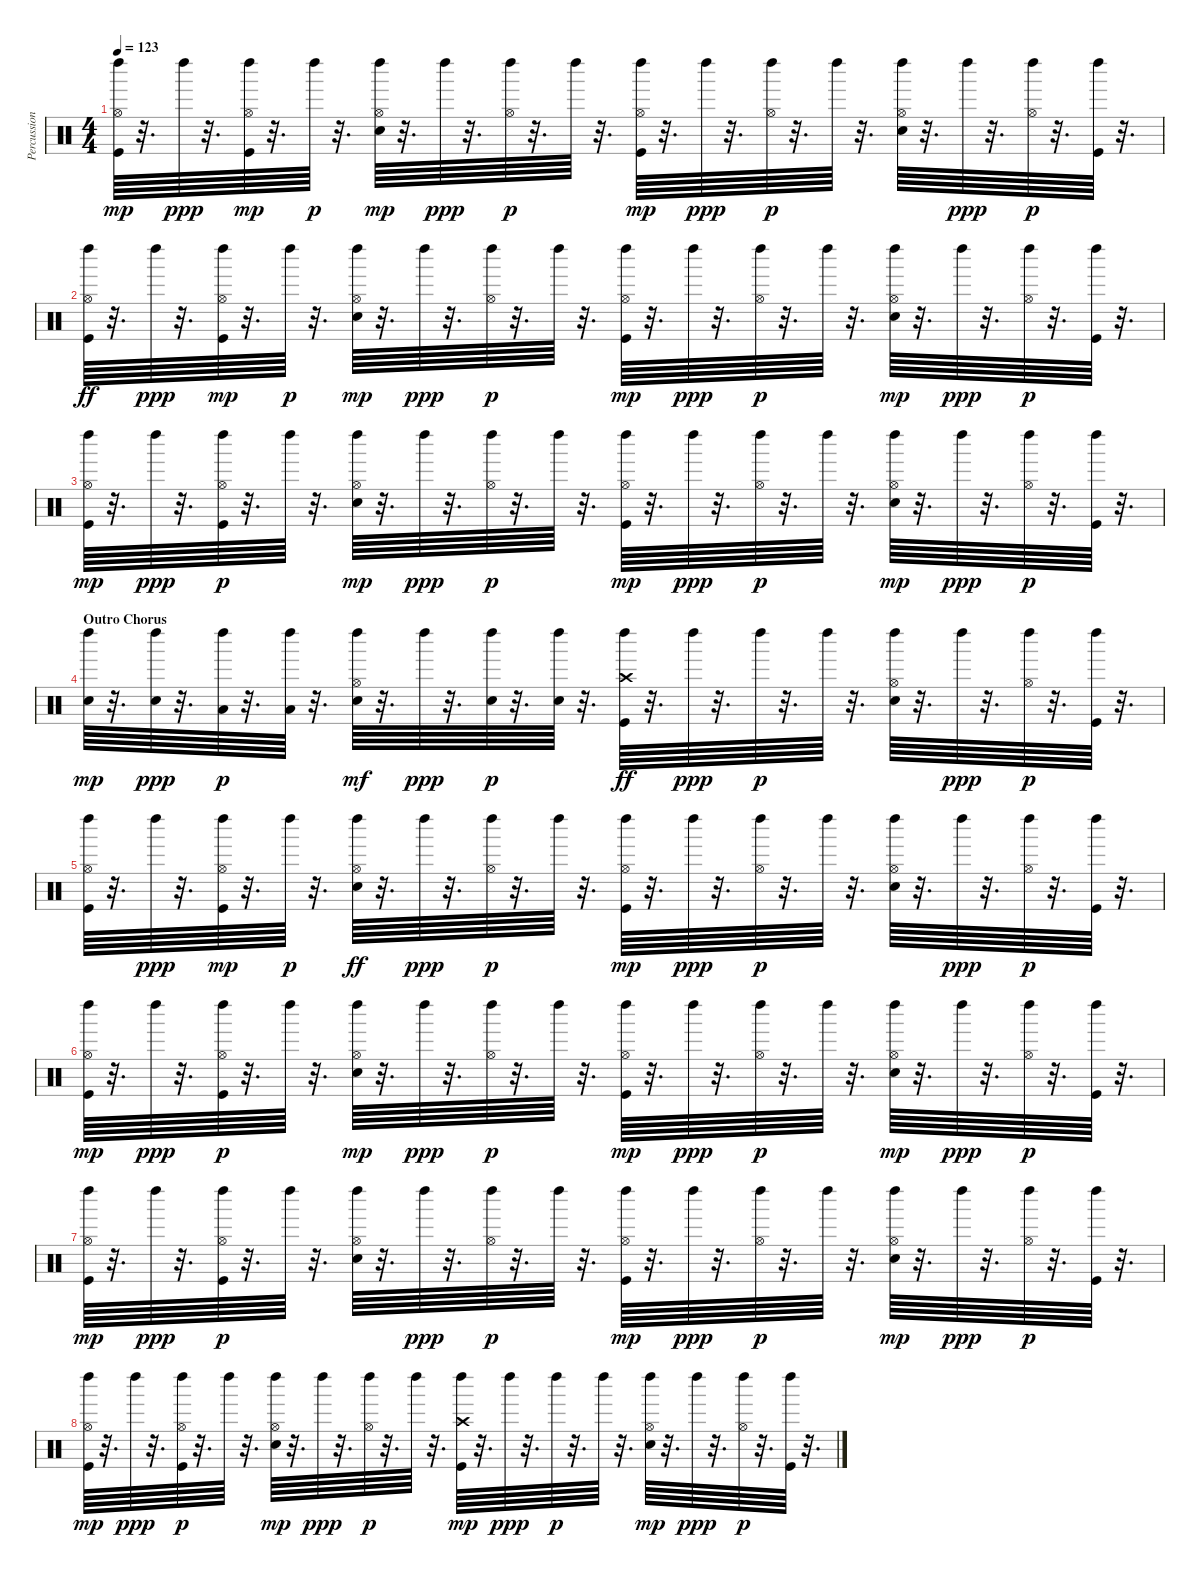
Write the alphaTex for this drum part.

\track ("Percussion" "Percussion") {instrument percussion}
\staff {score}
\articulation defaults
\ts (4 4)
\tempo 123
\clef neutral
\ks c
("Kick (hit)" "Hi-Hat (open)" "Left Maraca (hit)").64{dy mp} r.32{d} "Left Maraca (hit)".64{dy ppp} r.32{d} ("Hi-Hat (open)" "Left Maraca (hit)" "Kick (hit)").64{dy mp} r.32{d} "Left Maraca (hit)".64{dy p} r.32{d} ("Electric Snare (hit)" "Hi-Hat (open)" "Left Maraca (hit)").64{dy mp} r.32{d} "Left Maraca (hit)".64{dy ppp} r.32{d} ("Hi-Hat (open)" "Left Maraca (hit)").64{dy p} r.32{d} "Left Maraca (hit)".64 r.32{d} ("Kick (hit)" "Hi-Hat (open)" "Left Maraca (hit)").64{dy mp} r.32{d} "Left Maraca (hit)".64{dy ppp} r.32{d} ("Hi-Hat (open)" "Left Maraca (hit)").64{dy p} r.32{d} "Left Maraca (hit)".64 r.32{d} ("Left Maraca (hit)" "Electric Snare (hit)" "Hi-Hat (open)").64 r.32{d} "Left Maraca (hit)".64{dy ppp} r.32{d} ("Hi-Hat (open)" "Left Maraca (hit)").64{dy p} r.32{d} ("Kick (hit)" "Left Maraca (hit)").64 r.32{d} |
("Hi-Hat (open)" "Left Maraca (hit)" "Kick (hit)").64{dy ff} r.32{d} "Left Maraca (hit)".64{dy ppp} r.32{d} ("Hi-Hat (open)" "Left Maraca (hit)" "Kick (hit)").64{dy mp} r.32{d} "Left Maraca (hit)".64{dy p} r.32{d} ("Electric Snare (hit)" "Hi-Hat (open)" "Left Maraca (hit)").64{dy mp} r.32{d} "Left Maraca (hit)".64{dy ppp} r.32{d} ("Hi-Hat (open)" "Left Maraca (hit)").64{dy p} r.32{d} "Left Maraca (hit)".64 r.32{d} ("Kick (hit)" "Hi-Hat (open)" "Left Maraca (hit)").64{dy mp} r.32{d} "Left Maraca (hit)".64{dy ppp} r.32{d} ("Hi-Hat (open)" "Left Maraca (hit)").64{dy p} r.32{d} "Left Maraca (hit)".64 r.32{d} ("Electric Snare (hit)" "Hi-Hat (open)" "Left Maraca (hit)").64{dy mp} r.32{d} "Left Maraca (hit)".64{dy ppp} r.32{d} ("Hi-Hat (open)" "Left Maraca (hit)").64{dy p} r.32{d} ("Kick (hit)" "Left Maraca (hit)").64 r.32{d} |
("Kick (hit)" "Hi-Hat (open)" "Left Maraca (hit)").64{dy mp} r.32{d} "Left Maraca (hit)".64{dy ppp} r.32{d} ("Kick (hit)" "Hi-Hat (open)" "Left Maraca (hit)").64{dy p} r.32{d} "Left Maraca (hit)".64 r.32{d} ("Electric Snare (hit)" "Hi-Hat (open)" "Left Maraca (hit)").64{dy mp} r.32{d} "Left Maraca (hit)".64{dy ppp} r.32{d} ("Hi-Hat (open)" "Left Maraca (hit)").64{dy p} r.32{d} "Left Maraca (hit)".64 r.32{d} ("Kick (hit)" "Hi-Hat (open)" "Left Maraca (hit)").64{dy mp} r.32{d} "Left Maraca (hit)".64{dy ppp} r.32{d} ("Hi-Hat (open)" "Left Maraca (hit)").64{dy p} r.32{d} "Left Maraca (hit)".64 r.32{d} ("Electric Snare (hit)" "Hi-Hat (open)" "Left Maraca (hit)").64{dy mp} r.32{d} "Left Maraca (hit)".64{dy ppp} r.32{d} ("Hi-Hat (open)" "Left Maraca (hit)").64{dy p} r.32{d} ("Kick (hit)" "Left Maraca (hit)").64 r.32{d} |
\section ("" "Outro Chorus")
("Electric Snare (hit)" "Left Maraca (hit)").64{dy mp} r.32{d} ("Electric Snare (hit)" "Left Maraca (hit)").64{dy ppp} r.32{d} ("Low Tom (hit)" "Left Maraca (hit)").64{dy p} r.32{d} ("Low Tom (hit)" "Left Maraca (hit)").64 r.32{d} ("Left Maraca (hit)" "Electric Snare (hit)" "Hi-Hat (open)").64{dy mf} r.32{d} "Left Maraca (hit)".64{dy ppp} r.32{d} ("Electric Snare (hit)" "Left Maraca (hit)").64{dy p} r.32{d} ("Electric Snare (hit)" "Left Maraca (hit)").64 r.32{d} ("Crash high (hit)" "Left Maraca (hit)" "Kick (hit)").64{dy ff} r.32{d} "Left Maraca (hit)".64{dy ppp} r.32{d} "Left Maraca (hit)".64{dy p} r.32{d} "Left Maraca (hit)".64 r.32{d} ("Left Maraca (hit)" "Electric Snare (hit)" "Hi-Hat (open)").64 r.32{d} "Left Maraca (hit)".64{dy ppp} r.32{d} ("Hi-Hat (open)" "Left Maraca (hit)").64{dy p} r.32{d} ("Kick (hit)" "Left Maraca (hit)").64 r.32{d} |
("Left Maraca (hit)" "Kick (hit)" "Hi-Hat (open)").64 r.32{d} "Left Maraca (hit)".64{dy ppp} r.32{d} ("Hi-Hat (open)" "Left Maraca (hit)" "Kick (hit)").64{dy mp} r.32{d} "Left Maraca (hit)".64{dy p} r.32{d} ("Hi-Hat (open)" "Left Maraca (hit)" "Electric Snare (hit)").64{dy ff} r.32{d} "Left Maraca (hit)".64{dy ppp} r.32{d} ("Hi-Hat (open)" "Left Maraca (hit)").64{dy p} r.32{d} "Left Maraca (hit)".64 r.32{d} ("Kick (hit)" "Hi-Hat (open)" "Left Maraca (hit)").64{dy mp} r.32{d} "Left Maraca (hit)".64{dy ppp} r.32{d} ("Hi-Hat (open)" "Left Maraca (hit)").64{dy p} r.32{d} "Left Maraca (hit)".64 r.32{d} ("Left Maraca (hit)" "Electric Snare (hit)" "Hi-Hat (open)").64 r.32{d} "Left Maraca (hit)".64{dy ppp} r.32{d} ("Hi-Hat (open)" "Left Maraca (hit)").64{dy p} r.32{d} ("Kick (hit)" "Left Maraca (hit)").64 r.32{d} |
("Kick (hit)" "Hi-Hat (open)" "Left Maraca (hit)").64{dy mp} r.32{d} "Left Maraca (hit)".64{dy ppp} r.32{d} ("Kick (hit)" "Hi-Hat (open)" "Left Maraca (hit)").64{dy p} r.32{d} "Left Maraca (hit)".64 r.32{d} ("Electric Snare (hit)" "Hi-Hat (open)" "Left Maraca (hit)").64{dy mp} r.32{d} "Left Maraca (hit)".64{dy ppp} r.32{d} ("Hi-Hat (open)" "Left Maraca (hit)").64{dy p} r.32{d} "Left Maraca (hit)".64 r.32{d} ("Left Maraca (hit)" "Kick (hit)" "Hi-Hat (open)").64{dy mp} r.32{d} "Left Maraca (hit)".64{dy ppp} r.32{d} ("Hi-Hat (open)" "Left Maraca (hit)").64{dy p} r.32{d} "Left Maraca (hit)".64 r.32{d} ("Electric Snare (hit)" "Hi-Hat (open)" "Left Maraca (hit)").64{dy mp} r.32{d} "Left Maraca (hit)".64{dy ppp} r.32{d} ("Hi-Hat (open)" "Left Maraca (hit)").64{dy p} r.32{d} ("Kick (hit)" "Left Maraca (hit)").64 r.32{d} |
("Kick (hit)" "Hi-Hat (open)" "Left Maraca (hit)").64{dy mp} r.32{d} "Left Maraca (hit)".64{dy ppp} r.32{d} ("Kick (hit)" "Hi-Hat (open)" "Left Maraca (hit)").64{dy p} r.32{d} "Left Maraca (hit)".64 r.32{d} ("Left Maraca (hit)" "Electric Snare (hit)" "Hi-Hat (open)").64 r.32{d} "Left Maraca (hit)".64{dy ppp} r.32{d} ("Hi-Hat (open)" "Left Maraca (hit)").64{dy p} r.32{d} "Left Maraca (hit)".64 r.32{d} ("Kick (hit)" "Hi-Hat (open)" "Left Maraca (hit)").64{dy mp} r.32{d} "Left Maraca (hit)".64{dy ppp} r.32{d} ("Hi-Hat (open)" "Left Maraca (hit)").64{dy p} r.32{d} "Left Maraca (hit)".64 r.32{d} ("Electric Snare (hit)" "Hi-Hat (open)" "Left Maraca (hit)").64{dy mp} r.32{d} "Left Maraca (hit)".64{dy ppp} r.32{d} ("Hi-Hat (open)" "Left Maraca (hit)").64{dy p} r.32{d} ("Kick (hit)" "Left Maraca (hit)").64 r.32{d} |
("Kick (hit)" "Hi-Hat (open)" "Left Maraca (hit)").64{dy mp} r.32{d} "Left Maraca (hit)".64{dy ppp} r.32{d} ("Kick (hit)" "Hi-Hat (open)" "Left Maraca (hit)").64{dy p} r.32{d} "Left Maraca (hit)".64 r.32{d} ("Electric Snare (hit)" "Hi-Hat (open)" "Left Maraca (hit)").64{dy mp} r.32{d} "Left Maraca (hit)".64{dy ppp} r.32{d} ("Hi-Hat (open)" "Left Maraca (hit)").64{dy p} r.32{d} "Left Maraca (hit)".64 r.32{d} ("Kick (hit)" "Crash high (hit)" "Left Maraca (hit)").64{dy mp} r.32{d} "Left Maraca (hit)".64{dy ppp} r.32{d} "Left Maraca (hit)".64{dy p} r.32{d} "Left Maraca (hit)".64 r.32{d} ("Electric Snare (hit)" "Hi-Hat (open)" "Left Maraca (hit)").64{dy mp} r.32{d} "Left Maraca (hit)".64{dy ppp} r.32{d} ("Hi-Hat (open)" "Left Maraca (hit)").64{dy p} r.32{d} ("Kick (hit)" "Left Maraca (hit)").64 r.32{d}
